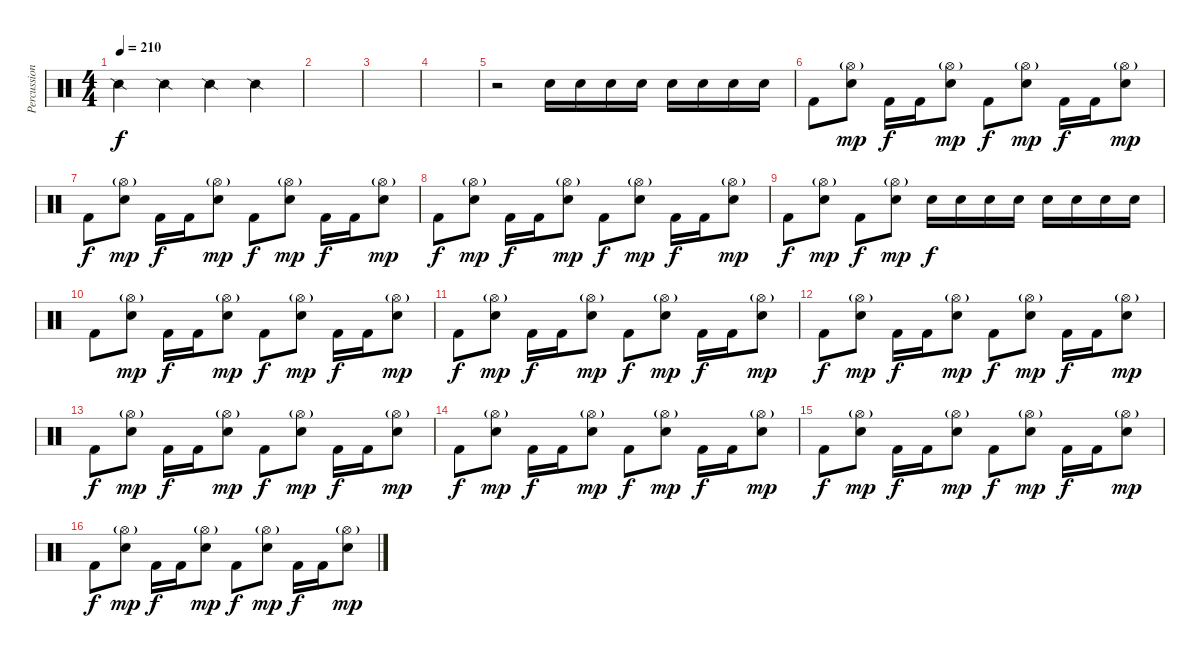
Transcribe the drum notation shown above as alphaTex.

\track ("Percussion" "Percussion") {instrument percussion}
\staff {score}
\articulation defaults
\ts (4 4)
\tempo 210
\clef neutral
\ks c "Snare (side stick) 2".4{dy f} "Snare (side stick) 2".4 "Snare (side stick) 2".4 "Snare (side stick) 2".4
|
|
|
|
r.2 "Snare (hit) 2".16 "Snare (hit) 2".16 "Snare (hit) 2".16 "Snare (hit) 2".16 "Snare (hit) 2".16 "Snare (hit) 2".16 "Snare (hit) 2".16 "Snare (hit) 2".16 |
"Kick (hit) 2".8 ("Hi-Hat (open)"{g} "Snare (hit) 2").8{dy mp} "Kick (hit) 2".16{dy f} "Kick (hit) 2".16 ("Hi-Hat (open)"{g} "Snare (hit) 2").8{dy mp} "Kick (hit) 2".8{dy f} ("Hi-Hat (open)"{g} "Snare (hit) 2").8{dy mp} "Kick (hit) 2".16{dy f} "Kick (hit) 2".16 ("Hi-Hat (open)"{g} "Snare (hit) 2").8{dy mp} |
"Kick (hit) 2".8{dy f} ("Hi-Hat (open)"{g} "Snare (hit) 2").8{dy mp} "Kick (hit) 2".16{dy f} "Kick (hit) 2".16 ("Hi-Hat (open)"{g} "Snare (hit) 2").8{dy mp} "Kick (hit) 2".8{dy f} ("Hi-Hat (open)"{g} "Snare (hit) 2").8{dy mp} "Kick (hit) 2".16{dy f} "Kick (hit) 2".16 ("Hi-Hat (open)"{g} "Snare (hit) 2").8{dy mp} |
"Kick (hit) 2".8{dy f} ("Hi-Hat (open)"{g} "Snare (hit) 2").8{dy mp} "Kick (hit) 2".16{dy f} "Kick (hit) 2".16 ("Hi-Hat (open)"{g} "Snare (hit) 2").8{dy mp} "Kick (hit) 2".8{dy f} ("Hi-Hat (open)"{g} "Snare (hit) 2").8{dy mp} "Kick (hit) 2".16{dy f} "Kick (hit) 2".16 ("Hi-Hat (open)"{g} "Snare (hit) 2").8{dy mp} |
"Kick (hit) 2".8{dy f} ("Hi-Hat (open)"{g} "Snare (hit) 2").8{dy mp} "Kick (hit) 2".8{dy f} ("Hi-Hat (open)"{g} "Snare (hit) 2").8{dy mp} "Snare (hit) 2".16{dy f} "Snare (hit) 2".16 "Snare (hit) 2".16 "Snare (hit) 2".16 "Snare (hit) 2".16 "Snare (hit) 2".16 "Snare (hit) 2".16 "Snare (hit) 2".16 |
"Kick (hit) 2".8 ("Hi-Hat (open)"{g} "Snare (hit) 2").8{dy mp} "Kick (hit) 2".16{dy f} "Kick (hit) 2".16 ("Hi-Hat (open)"{g} "Snare (hit) 2").8{dy mp} "Kick (hit) 2".8{dy f} ("Hi-Hat (open)"{g} "Snare (hit) 2").8{dy mp} "Kick (hit) 2".16{dy f} "Kick (hit) 2".16 ("Hi-Hat (open)"{g} "Snare (hit) 2").8{dy mp} |
"Kick (hit) 2".8{dy f} ("Hi-Hat (open)"{g} "Snare (hit) 2").8{dy mp} "Kick (hit) 2".16{dy f} "Kick (hit) 2".16 ("Hi-Hat (open)"{g} "Snare (hit) 2").8{dy mp} "Kick (hit) 2".8{dy f} ("Hi-Hat (open)"{g} "Snare (hit) 2").8{dy mp} "Kick (hit) 2".16{dy f} "Kick (hit) 2".16 ("Hi-Hat (open)"{g} "Snare (hit) 2").8{dy mp} |
"Kick (hit) 2".8{dy f} ("Hi-Hat (open)"{g} "Snare (hit) 2").8{dy mp} "Kick (hit) 2".16{dy f} "Kick (hit) 2".16 ("Hi-Hat (open)"{g} "Snare (hit) 2").8{dy mp} "Kick (hit) 2".8{dy f} ("Hi-Hat (open)"{g} "Snare (hit) 2").8{dy mp} "Kick (hit) 2".16{dy f} "Kick (hit) 2".16 ("Hi-Hat (open)"{g} "Snare (hit) 2").8{dy mp} |
"Kick (hit) 2".8{dy f} ("Hi-Hat (open)"{g} "Snare (hit) 2").8{dy mp} "Kick (hit) 2".16{dy f} "Kick (hit) 2".16 ("Hi-Hat (open)"{g} "Snare (hit) 2").8{dy mp} "Kick (hit) 2".8{dy f} ("Hi-Hat (open)"{g} "Snare (hit) 2").8{dy mp} "Kick (hit) 2".16{dy f} "Kick (hit) 2".16 ("Hi-Hat (open)"{g} "Snare (hit) 2").8{dy mp} |
"Kick (hit) 2".8{dy f} ("Hi-Hat (open)"{g} "Snare (hit) 2").8{dy mp} "Kick (hit) 2".16{dy f} "Kick (hit) 2".16 ("Hi-Hat (open)"{g} "Snare (hit) 2").8{dy mp} "Kick (hit) 2".8{dy f} ("Hi-Hat (open)"{g} "Snare (hit) 2").8{dy mp} "Kick (hit) 2".16{dy f} "Kick (hit) 2".16 ("Hi-Hat (open)"{g} "Snare (hit) 2").8{dy mp} |
"Kick (hit) 2".8{dy f} ("Hi-Hat (open)"{g} "Snare (hit) 2").8{dy mp} "Kick (hit) 2".16{dy f} "Kick (hit) 2".16 ("Hi-Hat (open)"{g} "Snare (hit) 2").8{dy mp} "Kick (hit) 2".8{dy f} ("Hi-Hat (open)"{g} "Snare (hit) 2").8{dy mp} "Kick (hit) 2".16{dy f} "Kick (hit) 2".16 ("Hi-Hat (open)"{g} "Snare (hit) 2").8{dy mp} |
"Kick (hit) 2".8{dy f} ("Hi-Hat (open)"{g} "Snare (hit) 2").8{dy mp} "Kick (hit) 2".16{dy f} "Kick (hit) 2".16 ("Hi-Hat (open)"{g} "Snare (hit) 2").8{dy mp} "Kick (hit) 2".8{dy f} ("Hi-Hat (open)"{g} "Snare (hit) 2").8{dy mp} "Kick (hit) 2".16{dy f} "Kick (hit) 2".16 ("Hi-Hat (open)"{g} "Snare (hit) 2").8{dy mp}
